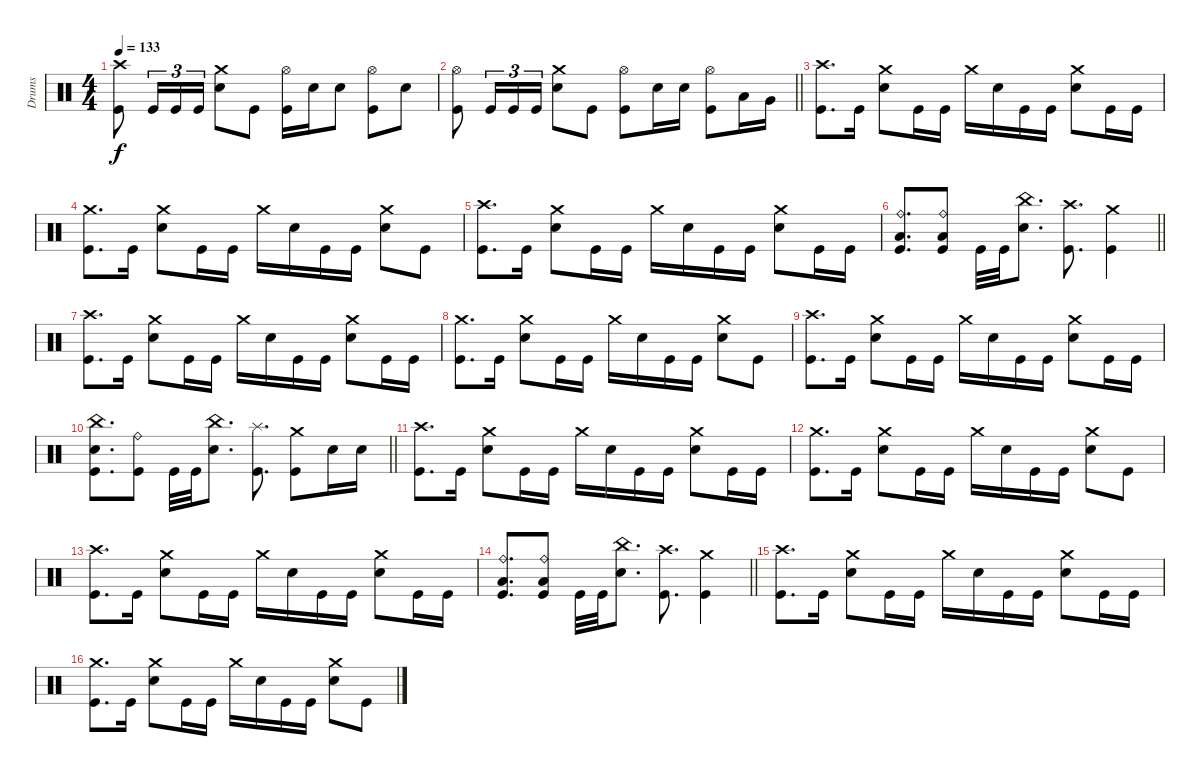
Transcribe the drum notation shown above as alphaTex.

\track ("Drums" "Drums") {instrument percussion}
\staff
\articulation defaults
\ts (4 4)
\tempo 133
\clef neutral
\ks c
("Crash high (hit)" "Kick (hit)").8{dy f} "Kick (hit)".16{tu (3 2)} "Kick (hit)".16{tu (3 2)} "Kick (hit)".16{tu (3 2)} ("Crash medium (hit)" "Electric Snare (hit)").8 "Kick (hit)".8 ("Hi-Hat (open)" "Kick (hit)").16 "Electric Snare (hit)".16 "Electric Snare (hit)".8 ("Hi-Hat (open)" "Kick (hit)").8 "Electric Snare (hit)".8 |
\barLineRight lightlight
("Hi-Hat (open)" "Kick (hit)").8 "Kick (hit)".16{tu (3 2)} "Kick (hit)".16{tu (3 2)} "Kick (hit)".16{tu (3 2)} ("Crash medium (hit)" "Electric Snare (hit)").8 "Kick (hit)".8 ("Hi-Hat (open)" "Kick (hit)").8 "Electric Snare (hit)".16 "Electric Snare (hit)".16 ("Hi-Hat (open)" "Kick (hit)").8 "Low Tom (hit)".16 "Very Low Tom (hit)".16 |
\section ("" "")
("Crash high (hit)" "Kick (hit)").8{d} "Kick (hit)".16 ("Crash medium (hit)" "Electric Snare (hit)").8 "Kick (hit)".16 "Kick (hit)".16 "Crash medium (hit)".16 "Electric Snare (hit)".16 "Kick (hit)".16 "Kick (hit)".16 ("Crash medium (hit)" "Electric Snare (hit)").8 "Kick (hit)".16 "Kick (hit)".16 |
("Crash medium (hit)" "Kick (hit)").8{d} "Kick (hit)".16 ("Crash medium (hit)" "Electric Snare (hit)").8 "Kick (hit)".16 "Kick (hit)".16 "Crash medium (hit)".16 "Electric Snare (hit)".16 "Kick (hit)".16 "Kick (hit)".16 ("Crash medium (hit)" "Electric Snare (hit)").8 "Kick (hit)".8 |
("Crash high (hit)" "Kick (hit)").8{d} "Kick (hit)".16 ("Crash medium (hit)" "Electric Snare (hit)").8 "Kick (hit)".16 "Kick (hit)".16 "Crash medium (hit)".16 "Electric Snare (hit)".16 "Kick (hit)".16 "Kick (hit)".16 ("Crash medium (hit)" "Electric Snare (hit)").8 "Kick (hit)".16 "Kick (hit)".16 |
\barLineRight lightlight
("Ride (bell)" "Low Floor Tom (hit)" "Kick (hit)").8{d} ("Ride (bell)" "Low Floor Tom (hit)" "Kick (hit)").8 "Kick (hit)".32 "Kick (hit)".32 ("China (hit)" "Electric Snare (hit)").8{d} ("Crash high (hit)" "Kick (hit)").8{d} ("Crash medium (hit)" "Kick (hit)").4 |
("Crash high (hit)" "Kick (hit)").8{d} "Kick (hit)".16 ("Crash medium (hit)" "Electric Snare (hit)").8 "Kick (hit)".16 "Kick (hit)".16 "Crash medium (hit)".16 "Electric Snare (hit)".16 "Kick (hit)".16 "Kick (hit)".16 ("Crash medium (hit)" "Electric Snare (hit)").8 "Kick (hit)".16 "Kick (hit)".16 |
("Crash medium (hit)" "Kick (hit)").8{d} "Kick (hit)".16 ("Crash medium (hit)" "Electric Snare (hit)").8 "Kick (hit)".16 "Kick (hit)".16 "Crash medium (hit)".16 "Electric Snare (hit)".16 "Kick (hit)".16 "Kick (hit)".16 ("Crash medium (hit)" "Electric Snare (hit)").8 "Kick (hit)".8 |
("Crash high (hit)" "Kick (hit)").8{d} "Kick (hit)".16 ("Crash medium (hit)" "Electric Snare (hit)").8 "Kick (hit)".16 "Kick (hit)".16 "Crash medium (hit)".16 "Electric Snare (hit)".16 "Kick (hit)".16 "Kick (hit)".16 ("Crash medium (hit)" "Electric Snare (hit)").8 "Kick (hit)".16 "Kick (hit)".16 |
\barLineRight lightlight
("China (hit)" "Electric Snare (hit)" "Kick (hit)").8{d} ("Ride (bell)" "Kick (hit)").8 "Kick (hit)".32 "Kick (hit)".32 ("China (hit)" "Electric Snare (hit)").8{d} ("Splash (hit)" "Kick (hit)").8{d} ("Crash medium (hit)" "Kick (hit)").8 "Electric Snare (hit)".16 "Electric Snare (hit)".16 |
("Crash high (hit)" "Kick (hit)").8{d} "Kick (hit)".16 ("Crash medium (hit)" "Electric Snare (hit)").8 "Kick (hit)".16 "Kick (hit)".16 "Crash medium (hit)".16 "Electric Snare (hit)".16 "Kick (hit)".16 "Kick (hit)".16 ("Crash medium (hit)" "Electric Snare (hit)").8 "Kick (hit)".16 "Kick (hit)".16 |
("Crash medium (hit)" "Kick (hit)").8{d} "Kick (hit)".16 ("Crash medium (hit)" "Electric Snare (hit)").8 "Kick (hit)".16 "Kick (hit)".16 "Crash medium (hit)".16 "Electric Snare (hit)".16 "Kick (hit)".16 "Kick (hit)".16 ("Crash medium (hit)" "Electric Snare (hit)").8 "Kick (hit)".8 |
("Crash high (hit)" "Kick (hit)").8{d} "Kick (hit)".16 ("Crash medium (hit)" "Electric Snare (hit)").8 "Kick (hit)".16 "Kick (hit)".16 "Crash medium (hit)".16 "Electric Snare (hit)".16 "Kick (hit)".16 "Kick (hit)".16 ("Crash medium (hit)" "Electric Snare (hit)").8 "Kick (hit)".16 "Kick (hit)".16 |
\barLineRight lightlight
("Ride (bell)" "Low Floor Tom (hit)" "Kick (hit)").8{d} ("Ride (bell)" "Low Floor Tom (hit)" "Kick (hit)").8 "Kick (hit)".32 "Kick (hit)".32 ("China (hit)" "Electric Snare (hit)").8{d} ("Crash high (hit)" "Kick (hit)").8{d} ("Crash medium (hit)" "Kick (hit)").4 |
("Crash high (hit)" "Kick (hit)").8{d} "Kick (hit)".16 ("Crash medium (hit)" "Electric Snare (hit)").8 "Kick (hit)".16 "Kick (hit)".16 "Crash medium (hit)".16 "Electric Snare (hit)".16 "Kick (hit)".16 "Kick (hit)".16 ("Crash medium (hit)" "Electric Snare (hit)").8 "Kick (hit)".16 "Kick (hit)".16 |
("Crash medium (hit)" "Kick (hit)").8{d} "Kick (hit)".16 ("Crash medium (hit)" "Electric Snare (hit)").8 "Kick (hit)".16 "Kick (hit)".16 "Crash medium (hit)".16 "Electric Snare (hit)".16 "Kick (hit)".16 "Kick (hit)".16 ("Crash medium (hit)" "Electric Snare (hit)").8 "Kick (hit)".8
